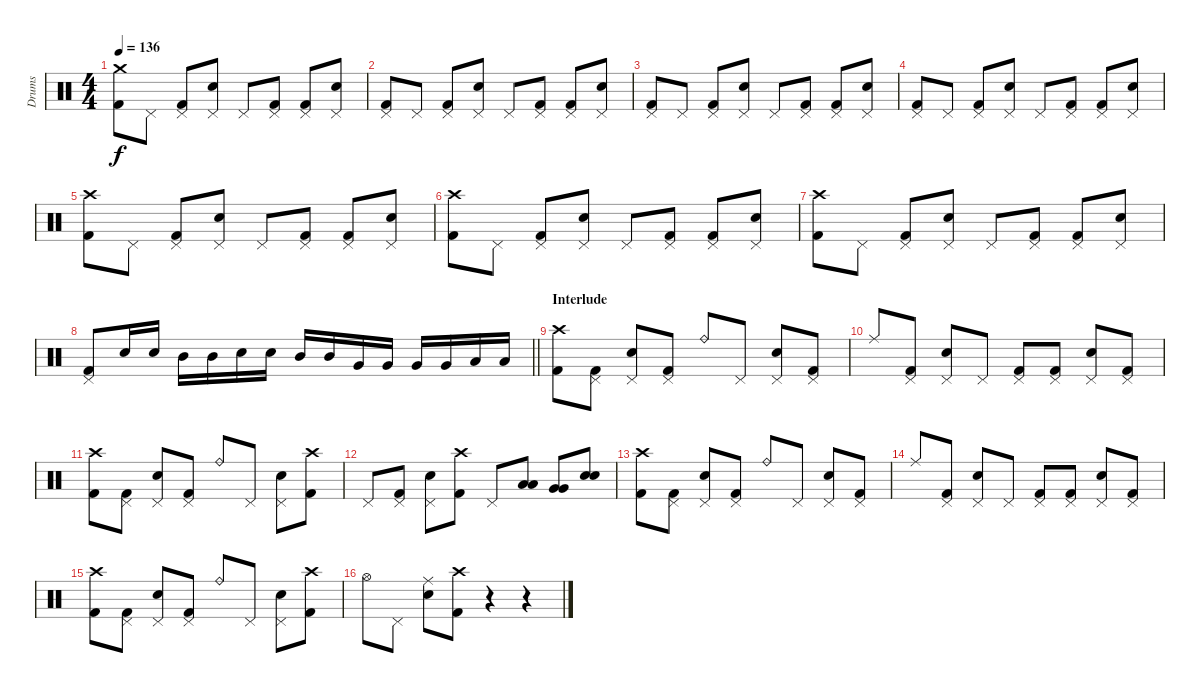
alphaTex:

\track ("Drums" "Drums") {instrument percussion}
\staff {score}
\articulation defaults
\ts (4 4)
\tempo 136
\clef neutral
\ks c
("Crash medium (hit)" "Kick (hit) 2").8{dy f} "Pedal Hi-Hat (hit)".8 ("Pedal Hi-Hat (hit)" "Kick (hit) 2").8 ("Pedal Hi-Hat (hit)" "Electric Snare (hit)").8 "Pedal Hi-Hat (hit)".8 ("Pedal Hi-Hat (hit)" "Kick (hit) 2").8 ("Pedal Hi-Hat (hit)" "Kick (hit) 2").8 ("Pedal Hi-Hat (hit)" "Electric Snare (hit)").8 |
("Pedal Hi-Hat (hit)" "Kick (hit) 2").8 "Pedal Hi-Hat (hit)".8 ("Pedal Hi-Hat (hit)" "Kick (hit) 2").8 ("Pedal Hi-Hat (hit)" "Electric Snare (hit)").8 "Pedal Hi-Hat (hit)".8 ("Pedal Hi-Hat (hit)" "Kick (hit) 2").8 ("Pedal Hi-Hat (hit)" "Kick (hit) 2").8 ("Pedal Hi-Hat (hit)" "Electric Snare (hit)").8 |
("Pedal Hi-Hat (hit)" "Kick (hit) 2").8 "Pedal Hi-Hat (hit)".8 ("Pedal Hi-Hat (hit)" "Kick (hit) 2").8 ("Pedal Hi-Hat (hit)" "Electric Snare (hit)").8 "Pedal Hi-Hat (hit)".8 ("Pedal Hi-Hat (hit)" "Kick (hit) 2").8 ("Pedal Hi-Hat (hit)" "Kick (hit) 2").8 ("Pedal Hi-Hat (hit)" "Electric Snare (hit)").8 |
("Pedal Hi-Hat (hit)" "Kick (hit) 2").8 "Pedal Hi-Hat (hit)".8 ("Pedal Hi-Hat (hit)" "Kick (hit) 2").8 ("Pedal Hi-Hat (hit)" "Electric Snare (hit)").8 "Pedal Hi-Hat (hit)".8 ("Pedal Hi-Hat (hit)" "Kick (hit) 2").8 ("Pedal Hi-Hat (hit)" "Kick (hit) 2").8 ("Pedal Hi-Hat (hit)" "Electric Snare (hit)").8 |
("Crash high (hit)" "Kick (hit) 2").8 "Pedal Hi-Hat (hit)".8 ("Pedal Hi-Hat (hit)" "Kick (hit) 2").8 ("Pedal Hi-Hat (hit)" "Electric Snare (hit)").8 "Pedal Hi-Hat (hit)".8 ("Pedal Hi-Hat (hit)" "Kick (hit) 2").8 ("Pedal Hi-Hat (hit)" "Kick (hit) 2").8 ("Pedal Hi-Hat (hit)" "Electric Snare (hit)").8 |
("Crash high (hit)" "Kick (hit) 2").8 "Pedal Hi-Hat (hit)".8 ("Pedal Hi-Hat (hit)" "Kick (hit) 2").8 ("Pedal Hi-Hat (hit)" "Electric Snare (hit)").8 "Pedal Hi-Hat (hit)".8 ("Pedal Hi-Hat (hit)" "Kick (hit) 2").8 ("Pedal Hi-Hat (hit)" "Kick (hit) 2").8 ("Pedal Hi-Hat (hit)" "Electric Snare (hit)").8 |
("Crash high (hit)" "Kick (hit) 2").8 "Pedal Hi-Hat (hit)".8 ("Pedal Hi-Hat (hit)" "Kick (hit) 2").8 ("Pedal Hi-Hat (hit)" "Electric Snare (hit)").8 "Pedal Hi-Hat (hit)".8 ("Pedal Hi-Hat (hit)" "Kick (hit) 2").8 ("Pedal Hi-Hat (hit)" "Kick (hit) 2").8 ("Pedal Hi-Hat (hit)" "Electric Snare (hit)").8 |
\barLineRight lightlight
("Pedal Hi-Hat (hit)" "Kick (hit) 2").8 "Electric Snare (hit)".16 "Electric Snare (hit)".16 "Mid Tom (hit)".16 "Mid Tom (hit)".16 "Electric Snare (hit)".16 "Electric Snare (hit)".16 "Mid Tom (hit)".16 "Mid Tom (hit)".16 "Very Low Tom (hit)".16 "Very Low Tom (hit)".16 "Very Low Tom (hit)".16 "Very Low Tom (hit)".16 "Low Floor Tom (hit)".16 "Low Floor Tom (hit)".16 |
\section ("" "Interlude")
("Crash high (hit)" "Kick (hit) 2").8 ("Pedal Hi-Hat (hit)" "Kick (hit) 2").8 ("Pedal Hi-Hat (hit)" "Electric Snare (hit)").8 ("Pedal Hi-Hat (hit)" "Kick (hit) 2").8 "Ride (bell)".8 "Pedal Hi-Hat (hit)".8 ("Pedal Hi-Hat (hit)" "Electric Snare (hit)").8 ("Pedal Hi-Hat (hit)" "Kick (hit) 2").8 |
"Ride (middle)".8 ("Pedal Hi-Hat (hit)" "Kick (hit) 2").8 ("Pedal Hi-Hat (hit)" "Electric Snare (hit)").8 "Pedal Hi-Hat (hit)".8 ("Pedal Hi-Hat (hit)" "Kick (hit) 2").8 ("Pedal Hi-Hat (hit)" "Kick (hit) 2").8 ("Pedal Hi-Hat (hit)" "Electric Snare (hit)").8 ("Pedal Hi-Hat (hit)" "Kick (hit) 2").8 |
("Crash high (hit)" "Kick (hit) 2").8 ("Pedal Hi-Hat (hit)" "Kick (hit) 2").8 ("Pedal Hi-Hat (hit)" "Electric Snare (hit)").8 ("Pedal Hi-Hat (hit)" "Kick (hit) 2").8 "Ride (bell)".8 "Pedal Hi-Hat (hit)".8 ("Pedal Hi-Hat (hit)" "Electric Snare (hit)").8 ("Crash high (hit)" "Kick (hit) 2").8 |
"Pedal Hi-Hat (hit)".8 ("Pedal Hi-Hat (hit)" "Kick (hit) 2").8 ("Pedal Hi-Hat (hit)" "Electric Snare (hit)").8 ("Crash high (hit)" "Kick (hit) 2").8 "Pedal Hi-Hat (hit)".8 ("Low Tom (hit)" "Low Tom (hit)").8 ("Very Low Tom (hit)" "Very Low Tom (hit)").8 ("Electric Snare (hit)" "Electric Snare (hit)").8 |
("Crash high (hit)" "Kick (hit) 2").8 ("Pedal Hi-Hat (hit)" "Kick (hit) 2").8 ("Pedal Hi-Hat (hit)" "Electric Snare (hit)").8 ("Pedal Hi-Hat (hit)" "Kick (hit) 2").8 "Ride (bell)".8 "Pedal Hi-Hat (hit)".8 ("Pedal Hi-Hat (hit)" "Electric Snare (hit)").8 ("Pedal Hi-Hat (hit)" "Kick (hit) 2").8 |
"Ride (middle)".8 ("Pedal Hi-Hat (hit)" "Kick (hit) 2").8 ("Pedal Hi-Hat (hit)" "Electric Snare (hit)").8 "Pedal Hi-Hat (hit)".8 ("Pedal Hi-Hat (hit)" "Kick (hit) 2").8 ("Pedal Hi-Hat (hit)" "Kick (hit) 2").8 ("Pedal Hi-Hat (hit)" "Electric Snare (hit)").8 ("Pedal Hi-Hat (hit)" "Kick (hit) 2").8 |
("Crash high (hit)" "Kick (hit) 2").8 ("Pedal Hi-Hat (hit)" "Kick (hit) 2").8 ("Pedal Hi-Hat (hit)" "Electric Snare (hit)").8 ("Pedal Hi-Hat (hit)" "Kick (hit) 2").8 "Ride (bell)".8 "Pedal Hi-Hat (hit)".8 ("Pedal Hi-Hat (hit)" "Electric Snare (hit)").8 ("Crash high (hit)" "Kick (hit) 2").8 |
"Hi-Hat (open)".8 "Pedal Hi-Hat (hit)".8 ("Ride (middle)" "Electric Snare (hit)").8 ("Crash high (hit)" "Kick (hit) 2").8 r.4 r.4
